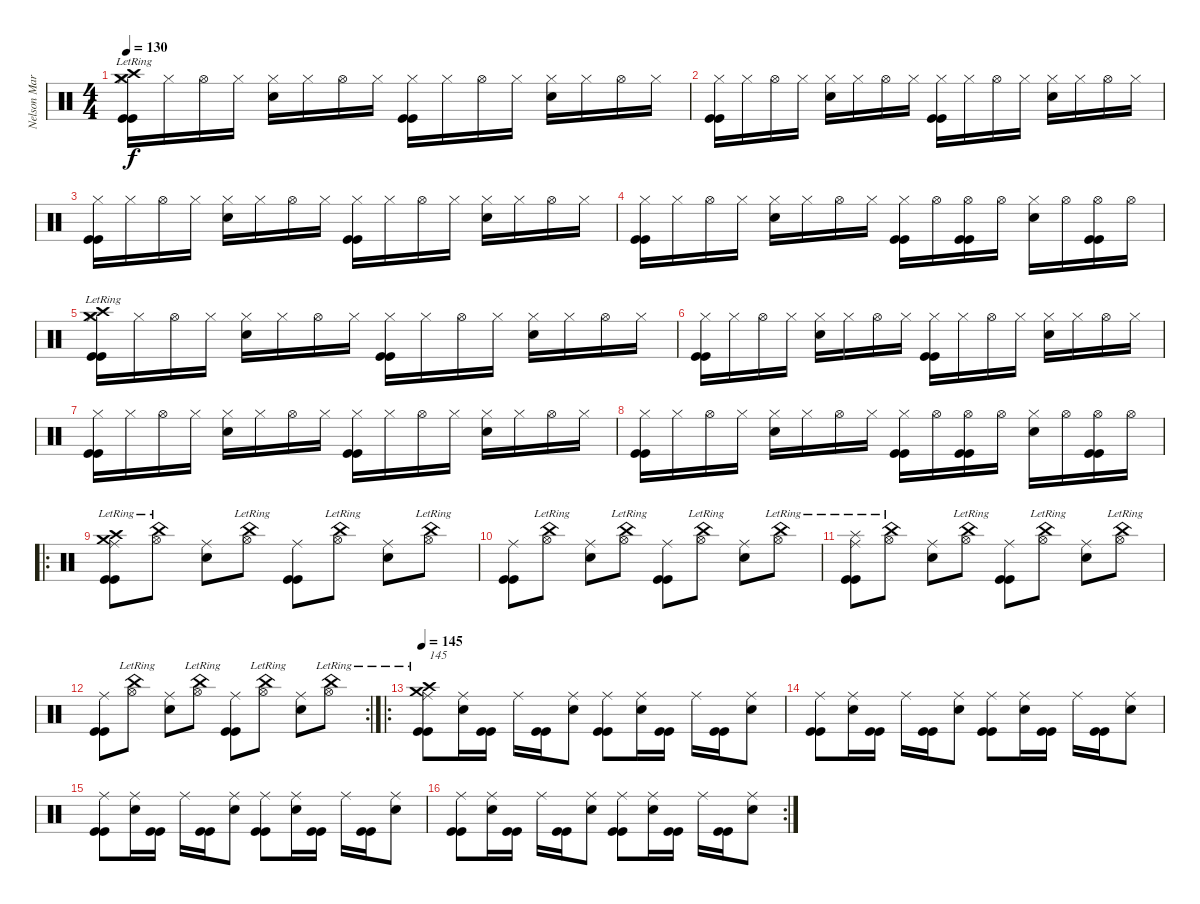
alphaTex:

\track ("Nelson Maria" "Nelson Mar") {instrument percussion}
\staff {score}
\articulation defaults
\ts (4 4)
\tempo 130
\clef neutral
\ks c
("Crash high (hit)"{lr} "Crash medium (hit)"{lr} "Hi-Hat (closed)" "Kick (hit)" "Kick (hit)").16{dy f} "Hi-Hat (closed)".16 "Hi-Hat (open)".16 "Hi-Hat (closed)".16 ("Snare (hit) 2" "Hi-Hat (closed)").16 "Hi-Hat (closed)".16 "Hi-Hat (open)".16 "Hi-Hat (closed)".16 ("Hi-Hat (closed)" "Kick (hit)" "Kick (hit)").16 "Hi-Hat (closed)".16 "Hi-Hat (open)".16 "Hi-Hat (closed)".16 ("Snare (hit) 2" "Hi-Hat (closed)").16 "Hi-Hat (closed)".16 "Hi-Hat (open)".16 "Hi-Hat (closed)".16 |
("Hi-Hat (closed)" "Kick (hit)" "Kick (hit)").16 "Hi-Hat (closed)".16 "Hi-Hat (open)".16 "Hi-Hat (closed)".16 ("Snare (hit) 2" "Hi-Hat (closed)").16 "Hi-Hat (closed)".16 "Hi-Hat (open)".16 "Hi-Hat (closed)".16 ("Hi-Hat (closed)" "Kick (hit)" "Kick (hit)").16 "Hi-Hat (closed)".16 "Hi-Hat (open)".16 "Hi-Hat (closed)".16 ("Snare (hit) 2" "Hi-Hat (closed)").16 "Hi-Hat (closed)".16 "Hi-Hat (open)".16 "Hi-Hat (closed)".16 |
("Hi-Hat (closed)" "Kick (hit)" "Kick (hit)").16 "Hi-Hat (closed)".16 "Hi-Hat (open)".16 "Hi-Hat (closed)".16 ("Snare (hit) 2" "Hi-Hat (closed)").16 "Hi-Hat (closed)".16 "Hi-Hat (open)".16 "Hi-Hat (closed)".16 ("Hi-Hat (closed)" "Kick (hit)" "Kick (hit)").16 "Hi-Hat (closed)".16 "Hi-Hat (open)".16 "Hi-Hat (closed)".16 ("Snare (hit) 2" "Hi-Hat (closed)").16 "Hi-Hat (closed)".16 "Hi-Hat (open)".16 "Hi-Hat (closed)".16 |
("Hi-Hat (closed)" "Kick (hit)" "Kick (hit)").16 "Hi-Hat (closed)".16 "Hi-Hat (open)".16 "Hi-Hat (closed)".16 ("Snare (hit) 2" "Hi-Hat (closed)").16 "Hi-Hat (closed)".16 "Hi-Hat (open)".16 "Hi-Hat (closed)".16 ("Hi-Hat (closed)" "Kick (hit)" "Kick (hit)").16 "Hi-Hat (open)".16 ("Hi-Hat (open)" "Kick (hit)" "Kick (hit)").16 "Hi-Hat (open)".16 ("Snare (hit) 2" "Hi-Hat (closed)").16 "Hi-Hat (open)".16 ("Hi-Hat (open)" "Kick (hit)" "Kick (hit)").16 "Hi-Hat (open)".16 |
("Crash high (hit)"{lr} "Crash medium (hit)"{lr} "Hi-Hat (closed)" "Kick (hit)" "Kick (hit)").16 "Hi-Hat (closed)".16 "Hi-Hat (open)".16 "Hi-Hat (closed)".16 ("Snare (hit) 2" "Hi-Hat (closed)").16 "Hi-Hat (closed)".16 "Hi-Hat (open)".16 "Hi-Hat (closed)".16 ("Hi-Hat (closed)" "Kick (hit)" "Kick (hit)").16 "Hi-Hat (closed)".16 "Hi-Hat (open)".16 "Hi-Hat (closed)".16 ("Snare (hit) 2" "Hi-Hat (closed)").16 "Hi-Hat (closed)".16 "Hi-Hat (open)".16 "Hi-Hat (closed)".16 |
("Hi-Hat (closed)" "Kick (hit)" "Kick (hit)").16 "Hi-Hat (closed)".16 "Hi-Hat (open)".16 "Hi-Hat (closed)".16 ("Snare (hit) 2" "Hi-Hat (closed)").16 "Hi-Hat (closed)".16 "Hi-Hat (open)".16 "Hi-Hat (closed)".16 ("Hi-Hat (closed)" "Kick (hit)" "Kick (hit)").16 "Hi-Hat (closed)".16 "Hi-Hat (open)".16 "Hi-Hat (closed)".16 ("Snare (hit) 2" "Hi-Hat (closed)").16 "Hi-Hat (closed)".16 "Hi-Hat (open)".16 "Hi-Hat (closed)".16 |
("Hi-Hat (closed)" "Kick (hit)" "Kick (hit)").16 "Hi-Hat (closed)".16 "Hi-Hat (open)".16 "Hi-Hat (closed)".16 ("Snare (hit) 2" "Hi-Hat (closed)").16 "Hi-Hat (closed)".16 "Hi-Hat (open)".16 "Hi-Hat (closed)".16 ("Hi-Hat (closed)" "Kick (hit)" "Kick (hit)").16 "Hi-Hat (closed)".16 "Hi-Hat (open)".16 "Hi-Hat (closed)".16 ("Snare (hit) 2" "Hi-Hat (closed)").16 "Hi-Hat (closed)".16 "Hi-Hat (open)".16 "Hi-Hat (closed)".16 |
("Hi-Hat (closed)" "Kick (hit)" "Kick (hit)").16 "Hi-Hat (closed)".16 "Hi-Hat (open)".16 "Hi-Hat (closed)".16 ("Snare (hit) 2" "Hi-Hat (closed)").16 "Hi-Hat (closed)".16 "Hi-Hat (open)".16 "Hi-Hat (closed)".16 ("Hi-Hat (closed)" "Kick (hit)" "Kick (hit)").16 "Hi-Hat (open)".16 ("Hi-Hat (open)" "Kick (hit)" "Kick (hit)").16 "Hi-Hat (open)".16 ("Snare (hit) 2" "Hi-Hat (closed)").16 "Hi-Hat (open)".16 ("Hi-Hat (open)" "Kick (hit)" "Kick (hit)").16 "Hi-Hat (open)".16 |
\ro
("Crash high (hit)"{lr} "Crash medium (hit)"{lr} "Ride (middle)" "Kick (hit)" "Kick (hit)").8 ("China (hit)"{lr} "Hi-Hat (open)").8 ("Snare (hit) 2" "Ride (middle)").8 ("China (hit)"{lr} "Hi-Hat (open)").8 ("Ride (middle)" "Kick (hit)" "Kick (hit)").8 ("China (hit)"{lr} "Hi-Hat (open)").8 ("Snare (hit) 2" "Ride (middle)").8 ("China (hit)"{lr} "Hi-Hat (open)").8 |
("Ride (middle)" "Kick (hit)" "Kick (hit)").8 ("China (hit)"{lr} "Hi-Hat (open)").8 ("Snare (hit) 2" "Ride (middle)").8 ("China (hit)"{lr} "Hi-Hat (open)").8 ("Ride (middle)" "Kick (hit)" "Kick (hit)").8 ("China (hit)"{lr} "Hi-Hat (open)").8 ("Snare (hit) 2" "Ride (middle)").8 ("China (hit)"{lr} "Hi-Hat (open)").8 |
("Splash (hit)"{lr} "Ride (middle)" "Kick (hit)" "Kick (hit)").8 ("China (hit)"{lr} "Hi-Hat (open)").8 ("Snare (hit) 2" "Ride (middle)").8 ("China (hit)"{lr} "Hi-Hat (open)").8 ("Ride (middle)" "Kick (hit)" "Kick (hit)").8 ("China (hit)"{lr} "Hi-Hat (open)").8 ("Snare (hit) 2" "Ride (middle)").8 ("China (hit)"{lr} "Hi-Hat (open)").8 |
\rc 2
("Ride (middle)" "Kick (hit)" "Kick (hit)").8 ("China (hit)"{lr} "Hi-Hat (open)").8 ("Snare (hit) 2" "Ride (middle)").8 ("China (hit)"{lr} "Hi-Hat (open)").8 ("Ride (middle)" "Kick (hit)" "Kick (hit)").8 ("China (hit)"{lr} "Hi-Hat (open)").8 ("Snare (hit) 2" "Ride (middle)").8 ("China (hit)"{lr} "Hi-Hat (open)").8 |
\ro
\tempo 145
("Crash high (hit)"{lr} "Crash medium (hit)"{lr} "Ride (middle)" "Kick (hit)" "Kick (hit)").8{txt "145"} ("Snare (hit) 2" "Ride (middle)").16 ("Kick (hit)" "Kick (hit)").16 "Ride (middle)".16 ("Kick (hit)" "Kick (hit)").16 ("Snare (hit) 2" "Ride (middle)").8 ("Ride (middle)" "Kick (hit)" "Kick (hit)").8 ("Snare (hit) 2" "Ride (middle)").16 ("Kick (hit)" "Kick (hit)").16 "Ride (middle)".16 ("Kick (hit)" "Kick (hit)").16 ("Snare (hit) 2" "Ride (middle)").8 |
("Ride (middle)" "Kick (hit)" "Kick (hit)").8 ("Snare (hit) 2" "Ride (middle)").16 ("Kick (hit)" "Kick (hit)").16 "Ride (middle)".16 ("Kick (hit)" "Kick (hit)").16 ("Snare (hit) 2" "Ride (middle)").8 ("Ride (middle)" "Kick (hit)" "Kick (hit)").8 ("Snare (hit) 2" "Ride (middle)").16 ("Kick (hit)" "Kick (hit)").16 "Ride (middle)".16 ("Kick (hit)" "Kick (hit)").16 ("Snare (hit) 2" "Ride (middle)").8 |
("Ride (middle)" "Kick (hit)" "Kick (hit)").8 ("Snare (hit) 2" "Ride (middle)").16 ("Kick (hit)" "Kick (hit)").16 "Ride (middle)".16 ("Kick (hit)" "Kick (hit)").16 ("Snare (hit) 2" "Ride (middle)").8 ("Ride (middle)" "Kick (hit)" "Kick (hit)").8 ("Snare (hit) 2" "Ride (middle)").16 ("Kick (hit)" "Kick (hit)").16 "Ride (middle)".16 ("Kick (hit)" "Kick (hit)").16 ("Snare (hit) 2" "Ride (middle)").8 |
\rc 2
("Ride (middle)" "Kick (hit)" "Kick (hit)").8 ("Snare (hit) 2" "Ride (middle)").16 ("Kick (hit)" "Kick (hit)").16 "Ride (middle)".16 ("Kick (hit)" "Kick (hit)").16 ("Snare (hit) 2" "Ride (middle)").8 ("Ride (middle)" "Kick (hit)" "Kick (hit)").8 ("Snare (hit) 2" "Ride (middle)").16 ("Kick (hit)" "Kick (hit)").16 "Ride (middle)".16 ("Kick (hit)" "Kick (hit)").16 ("Snare (hit) 2" "Ride (middle)").8
